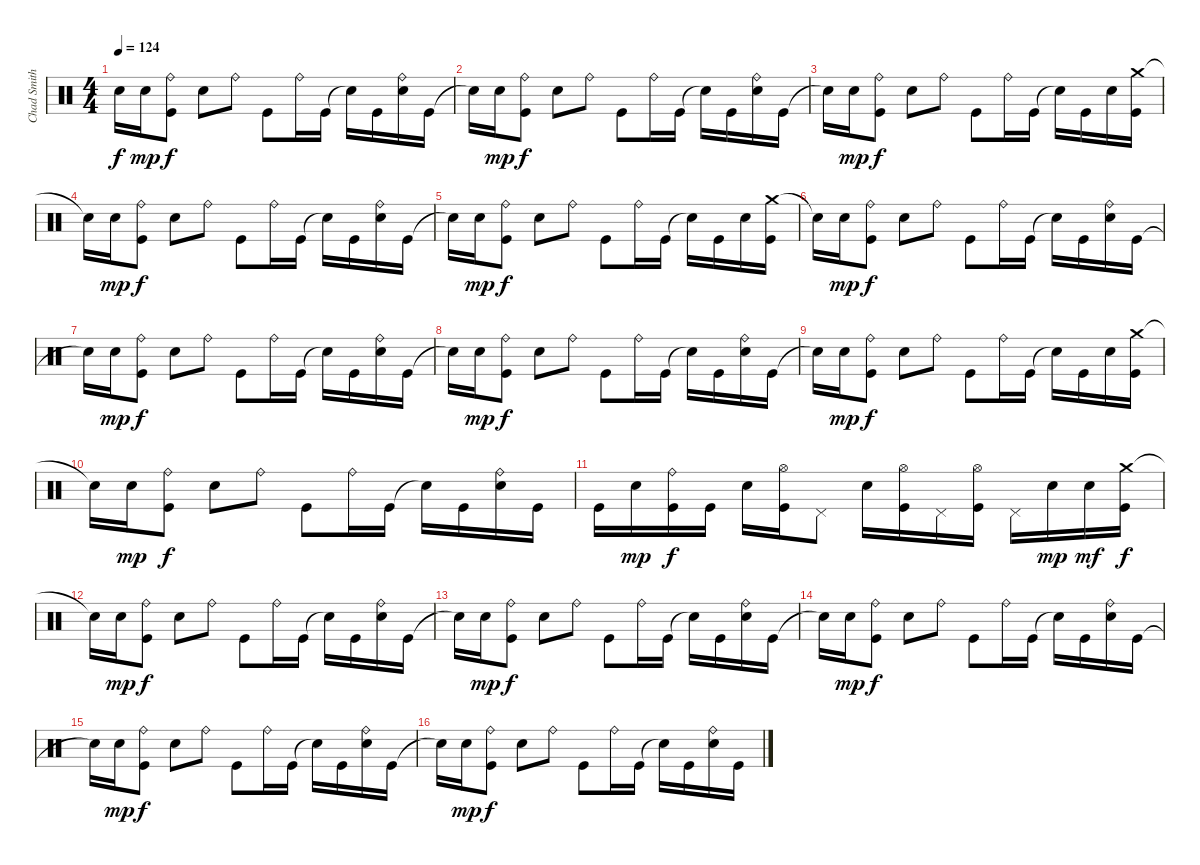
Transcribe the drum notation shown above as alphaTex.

\track ("Chad Smith" "Chad Smith") {instrument percussion}
\staff {score}
\articulation defaults
\ts (4 4)
\tempo 124
\clef neutral
\ks c "Snare (hit)"{t}.16{dy f} "Electric Snare (hit)".16{dy mp}
("Ride (bell)" "Kick (hit)").8{dy f} "Electric Snare (hit)".8 "Ride (bell)".8 "Kick (hit)".8 "Ride (bell)".16 "Kick (hit)".16 "Snare (hit)"{t}.16 "Kick (hit)".16 ("Ride (bell)" "Electric Snare (hit)").16 "Kick (hit)".16 |
"Snare (hit)"{t}.16 "Electric Snare (hit)".16{dy mp} ("Ride (bell)" "Kick (hit)").8{dy f} "Electric Snare (hit)".8 "Ride (bell)".8 "Kick (hit)".8 "Ride (bell)".16 "Kick (hit)".16 "Snare (hit)"{t}.16 "Kick (hit)".16 ("Ride (bell)" "Electric Snare (hit)").16 "Kick (hit)".16 |
"Snare (hit)"{t}.16 "Electric Snare (hit)".16{dy mp} ("Ride (bell)" "Kick (hit)").8{dy f} "Electric Snare (hit)".8 "Ride (bell)".8 "Kick (hit)".8 "Ride (bell)".16 "Kick (hit)".16 "Snare (hit)"{t}.16 "Kick (hit)".16 "Electric Snare (hit)".16 ("Crash medium (hit)" "Kick (hit)").16 |
"Snare (hit)"{t}.16 "Electric Snare (hit)".16{dy mp} ("Ride (bell)" "Kick (hit)").8{dy f} "Electric Snare (hit)".8 "Ride (bell)".8 "Kick (hit)".8 "Ride (bell)".16 "Kick (hit)".16 "Snare (hit)"{t}.16 "Kick (hit)".16 ("Ride (bell)" "Electric Snare (hit)").16 "Kick (hit)".16 |
"Snare (hit)"{t}.16 "Electric Snare (hit)".16{dy mp} ("Ride (bell)" "Kick (hit)").8{dy f} "Electric Snare (hit)".8 "Ride (bell)".8 "Kick (hit)".8 "Ride (bell)".16 "Kick (hit)".16 "Snare (hit)"{t}.16 "Kick (hit)".16 "Electric Snare (hit)".16 ("Crash medium (hit)" "Kick (hit)").16 |
"Snare (hit)"{t}.16 "Electric Snare (hit)".16{dy mp} ("Ride (bell)" "Kick (hit)").8{dy f} "Electric Snare (hit)".8 "Ride (bell)".8 "Kick (hit)".8 "Ride (bell)".16 "Kick (hit)".16 "Snare (hit)"{t}.16 "Kick (hit)".16 ("Ride (bell)" "Electric Snare (hit)").16 "Kick (hit)".16 |
"Snare (hit)"{t}.16 "Electric Snare (hit)".16{dy mp} ("Ride (bell)" "Kick (hit)").8{dy f} "Electric Snare (hit)".8 "Ride (bell)".8 "Kick (hit)".8 "Ride (bell)".16 "Kick (hit)".16 "Snare (hit)"{t}.16 "Kick (hit)".16 ("Ride (bell)" "Electric Snare (hit)").16 "Kick (hit)".16 |
"Snare (hit)"{t}.16 "Electric Snare (hit)".16{dy mp} ("Ride (bell)" "Kick (hit)").8{dy f} "Electric Snare (hit)".8 "Ride (bell)".8 "Kick (hit)".8 "Ride (bell)".16 "Kick (hit)".16 "Snare (hit)"{t}.16 "Kick (hit)".16 ("Ride (bell)" "Electric Snare (hit)").16 "Kick (hit)".16 |
"Snare (hit)"{t}.16 "Electric Snare (hit)".16{dy mp} ("Ride (bell)" "Kick (hit)").8{dy f} "Electric Snare (hit)".8 "Ride (bell)".8 "Kick (hit)".8 "Ride (bell)".16 "Kick (hit)".16 "Snare (hit)"{t}.16 "Kick (hit)".16 "Electric Snare (hit)".16 ("Crash medium (hit)" "Kick (hit)").16 |
"Snare (hit)"{t}.16 "Electric Snare (hit)".16{dy mp} ("Ride (bell)" "Kick (hit)").8{dy f} "Electric Snare (hit)".8 "Ride (bell)".8 "Kick (hit)".8 "Ride (bell)".16 "Kick (hit)".16 "Snare (hit)"{t}.16 "Kick (hit)".16 ("Ride (bell)" "Electric Snare (hit)").16 "Kick (hit)".16 |
"Kick (hit)".16 "Electric Snare (hit)".16{dy mp} ("Ride (bell)" "Kick (hit)").16{dy f} "Kick (hit)".16 "Electric Snare (hit)".16 ("Hi-Hat (open)" "Kick (hit)").16 "Pedal Hi-Hat (hit)".8 "Electric Snare (hit)".16 ("Hi-Hat (open)" "Kick (hit)").16 "Pedal Hi-Hat (hit)".16 ("Hi-Hat (open)" "Kick (hit)").16 "Pedal Hi-Hat (hit)".16 "Electric Snare (hit)".16{dy mp} "Electric Snare (hit)".16{dy mf} ("Crash medium (hit)" "Kick (hit)").16{dy f} |
"Snare (hit)"{t}.16 "Electric Snare (hit)".16{dy mp} ("Ride (bell)" "Kick (hit)").8{dy f} "Electric Snare (hit)".8 "Ride (bell)".8 "Kick (hit)".8 "Ride (bell)".16 "Kick (hit)".16 "Snare (hit)"{t}.16 "Kick (hit)".16 ("Ride (bell)" "Electric Snare (hit)").16 "Kick (hit)".16 |
"Snare (hit)"{t}.16 "Electric Snare (hit)".16{dy mp} ("Ride (bell)" "Kick (hit)").8{dy f} "Electric Snare (hit)".8 "Ride (bell)".8 "Kick (hit)".8 "Ride (bell)".16 "Kick (hit)".16 "Snare (hit)"{t}.16 "Kick (hit)".16 ("Ride (bell)" "Electric Snare (hit)").16 "Kick (hit)".16 |
"Snare (hit)"{t}.16 "Electric Snare (hit)".16{dy mp} ("Ride (bell)" "Kick (hit)").8{dy f} "Electric Snare (hit)".8 "Ride (bell)".8 "Kick (hit)".8 "Ride (bell)".16 "Kick (hit)".16 "Snare (hit)"{t}.16 "Kick (hit)".16 ("Ride (bell)" "Electric Snare (hit)").16 "Kick (hit)".16 |
"Snare (hit)"{t}.16 "Electric Snare (hit)".16{dy mp} ("Ride (bell)" "Kick (hit)").8{dy f} "Electric Snare (hit)".8 "Ride (bell)".8 "Kick (hit)".8 "Ride (bell)".16 "Kick (hit)".16 "Snare (hit)"{t}.16 "Kick (hit)".16 ("Ride (bell)" "Electric Snare (hit)").16 "Kick (hit)".16 |
"Snare (hit)"{t}.16 "Electric Snare (hit)".16{dy mp} ("Ride (bell)" "Kick (hit)").8{dy f} "Electric Snare (hit)".8 "Ride (bell)".8 "Kick (hit)".8 "Ride (bell)".16 "Kick (hit)".16 "Snare (hit)"{t}.16 "Kick (hit)".16 ("Ride (bell)" "Electric Snare (hit)").16 "Kick (hit)".16
